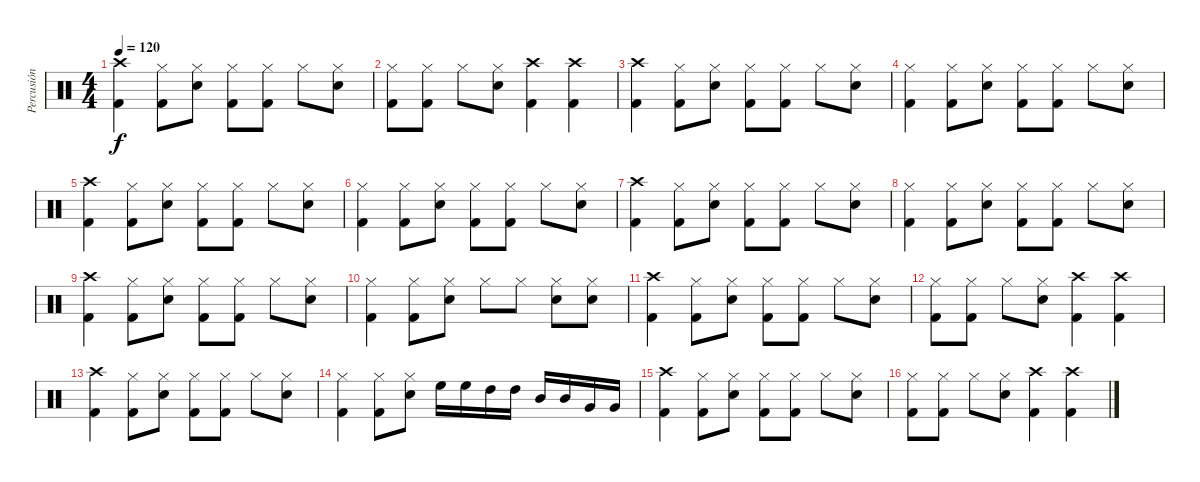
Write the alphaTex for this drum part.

\track ("Percusión" "Percusión") {instrument percussion}
\staff {score}
\articulation defaults
\ts (4 4)
\tempo 120
\clef neutral
\ks c
("Crash high (hit)" "Kick (hit) 2").4{dy f} ("Hi-Hat (closed)" "Kick (hit) 2").8 ("Hi-Hat (closed)" "Snare (hit) 2").8 ("Hi-Hat (closed)" "Kick (hit) 2").8 ("Hi-Hat (closed)" "Kick (hit) 2").8 "Hi-Hat (closed)".8 ("Hi-Hat (closed)" "Snare (hit) 2").8 |
("Hi-Hat (closed)" "Kick (hit) 2").8 ("Hi-Hat (closed)" "Kick (hit) 2").8 "Hi-Hat (closed)".8 ("Hi-Hat (closed)" "Snare (hit) 2").8 ("Crash high (hit)" "Kick (hit) 2").4 ("Crash high (hit)" "Kick (hit) 2").4 |
("Crash high (hit)" "Kick (hit) 2").4 ("Hi-Hat (closed)" "Kick (hit) 2").8 ("Hi-Hat (closed)" "Snare (hit) 2").8 ("Hi-Hat (closed)" "Kick (hit) 2").8 ("Hi-Hat (closed)" "Kick (hit) 2").8 "Hi-Hat (closed)".8 ("Hi-Hat (closed)" "Snare (hit) 2").8 |
("Hi-Hat (closed)" "Kick (hit) 2").4 ("Hi-Hat (closed)" "Kick (hit) 2").8 ("Hi-Hat (closed)" "Snare (hit) 2").8 ("Hi-Hat (closed)" "Kick (hit) 2").8 ("Hi-Hat (closed)" "Kick (hit) 2").8 "Hi-Hat (closed)".8 ("Hi-Hat (closed)" "Snare (hit) 2").8 |
("Crash high (hit)" "Kick (hit) 2").4 ("Hi-Hat (closed)" "Kick (hit) 2").8 ("Hi-Hat (closed)" "Snare (hit) 2").8 ("Hi-Hat (closed)" "Kick (hit) 2").8 ("Hi-Hat (closed)" "Kick (hit) 2").8 "Hi-Hat (closed)".8 ("Hi-Hat (closed)" "Snare (hit) 2").8 |
("Hi-Hat (closed)" "Kick (hit) 2").4 ("Hi-Hat (closed)" "Kick (hit) 2").8 ("Hi-Hat (closed)" "Snare (hit) 2").8 ("Hi-Hat (closed)" "Kick (hit) 2").8 ("Hi-Hat (closed)" "Kick (hit) 2").8 "Hi-Hat (closed)".8 ("Hi-Hat (closed)" "Snare (hit) 2").8 |
("Crash high (hit)" "Kick (hit) 2").4 ("Hi-Hat (closed)" "Kick (hit) 2").8 ("Hi-Hat (closed)" "Snare (hit) 2").8 ("Hi-Hat (closed)" "Kick (hit) 2").8 ("Hi-Hat (closed)" "Kick (hit) 2").8 "Hi-Hat (closed)".8 ("Hi-Hat (closed)" "Snare (hit) 2").8 |
("Hi-Hat (closed)" "Kick (hit) 2").4 ("Hi-Hat (closed)" "Kick (hit) 2").8 ("Hi-Hat (closed)" "Snare (hit) 2").8 ("Hi-Hat (closed)" "Kick (hit) 2").8 ("Hi-Hat (closed)" "Kick (hit) 2").8 "Hi-Hat (closed)".8 ("Hi-Hat (closed)" "Snare (hit) 2").8 |
("Crash high (hit)" "Kick (hit) 2").4 ("Hi-Hat (closed)" "Kick (hit) 2").8 ("Hi-Hat (closed)" "Snare (hit) 2").8 ("Hi-Hat (closed)" "Kick (hit) 2").8 ("Hi-Hat (closed)" "Kick (hit) 2").8 "Hi-Hat (closed)".8 ("Hi-Hat (closed)" "Snare (hit) 2").8 |
("Hi-Hat (closed)" "Kick (hit) 2").4 ("Hi-Hat (closed)" "Kick (hit) 2").8 ("Hi-Hat (closed)" "Snare (hit) 2").8 "Hi-Hat (closed)".8 "Hi-Hat (closed)".8 ("Hi-Hat (closed)" "Snare (hit) 2").8 ("Hi-Hat (closed)" "Snare (hit) 2").8 |
("Crash high (hit)" "Kick (hit) 2").4 ("Hi-Hat (closed)" "Kick (hit) 2").8 ("Hi-Hat (closed)" "Snare (hit) 2").8 ("Hi-Hat (closed)" "Kick (hit) 2").8 ("Hi-Hat (closed)" "Kick (hit) 2").8 "Hi-Hat (closed)".8 ("Hi-Hat (closed)" "Snare (hit) 2").8 |
("Hi-Hat (closed)" "Kick (hit) 2").8 ("Hi-Hat (closed)" "Kick (hit) 2").8 "Hi-Hat (closed)".8 ("Hi-Hat (closed)" "Snare (hit) 2").8 ("Crash high (hit)" "Kick (hit) 2").4 ("Crash high (hit)" "Kick (hit) 2").4 |
("Crash high (hit)" "Kick (hit) 2").4 ("Hi-Hat (closed)" "Kick (hit) 2").8 ("Hi-Hat (closed)" "Snare (hit) 2").8 ("Hi-Hat (closed)" "Kick (hit) 2").8 ("Hi-Hat (closed)" "Kick (hit) 2").8 "Hi-Hat (closed)".8 ("Hi-Hat (closed)" "Snare (hit) 2").8 |
("Hi-Hat (closed)" "Kick (hit) 2").4 ("Hi-Hat (closed)" "Kick (hit) 2").8 ("Hi-Hat (closed)" "Snare (hit) 2").8 "High Floor Tom (hit)".16 "High Floor Tom (hit)".16 "High Tom (hit)".16 "High Tom (hit)".16 "Mid Tom (hit)".16 "Mid Tom (hit)".16 "Very Low Tom (hit)".16 "Very Low Tom (hit)".16 |
("Crash high (hit)" "Kick (hit) 2").4 ("Hi-Hat (closed)" "Kick (hit) 2").8 ("Hi-Hat (closed)" "Snare (hit) 2").8 ("Hi-Hat (closed)" "Kick (hit) 2").8 ("Hi-Hat (closed)" "Kick (hit) 2").8 "Hi-Hat (closed)".8 ("Hi-Hat (closed)" "Snare (hit) 2").8 |
("Hi-Hat (closed)" "Kick (hit) 2").8 ("Hi-Hat (closed)" "Kick (hit) 2").8 "Hi-Hat (closed)".8 ("Hi-Hat (closed)" "Snare (hit) 2").8 ("Crash high (hit)" "Kick (hit) 2").4 ("Crash high (hit)" "Kick (hit) 2").4
